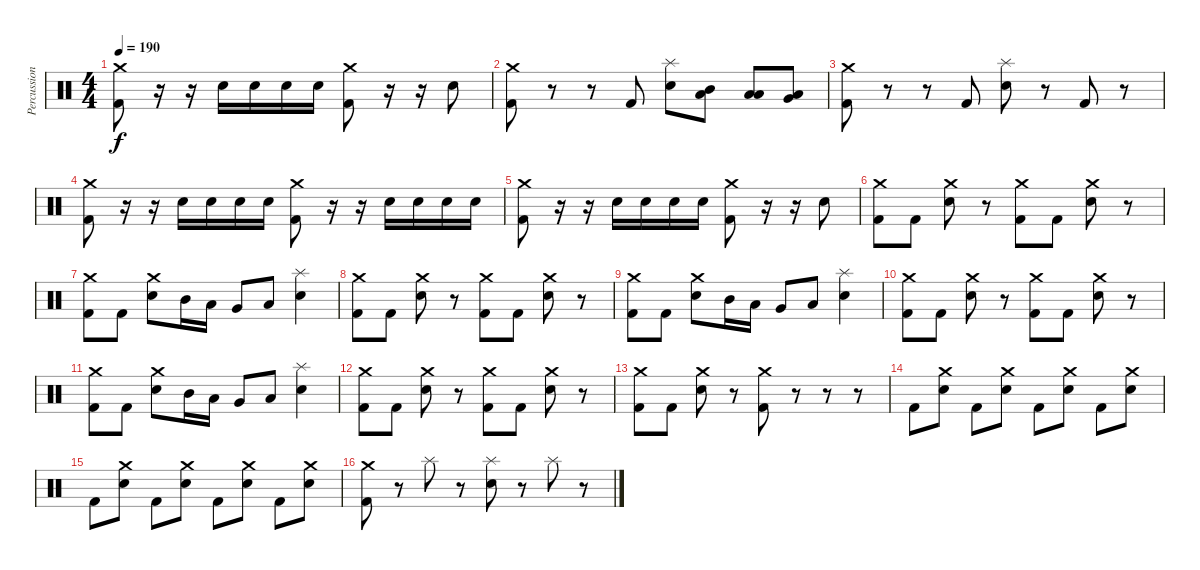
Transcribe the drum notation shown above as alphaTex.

\track ("Percussion" "Percussion") {instrument percussion}
\staff {score}
\articulation defaults
\ts (4 4)
\tempo 190
\clef neutral
\ks c
("Crash medium (hit)" "Kick (hit) 2").8{dy f} r.16 r.16 "Electric Snare (hit)".16 "Electric Snare (hit)".16 "Electric Snare (hit)".16 "Electric Snare (hit)".16 ("Crash medium (hit)" "Kick (hit) 2").8 r.16 r.16 "Electric Snare (hit)".8 |
("Crash medium (hit)" "Kick (hit) 2").8 r.8 r.8 "Kick (hit) 2".8 ("Splash (hit)" "Electric Snare (hit)").8 ("Mid Tom (hit)" "Low Floor Tom (hit)").8 ("Low Tom (hit)" "Low Floor Tom (hit)").8 ("Very Low Tom (hit)" "Low Floor Tom (hit)").8 |
("Crash medium (hit)" "Kick (hit) 2").8 r.8 r.8 "Kick (hit) 2".8 ("Splash (hit)" "Electric Snare (hit)").8 r.8 "Kick (hit) 2".8 r.8 |
("Crash medium (hit)" "Kick (hit) 2").8 r.16 r.16 "Electric Snare (hit)".16 "Electric Snare (hit)".16 "Electric Snare (hit)".16 "Electric Snare (hit)".16 ("Crash medium (hit)" "Kick (hit) 2").8 r.16 r.16 "Electric Snare (hit)".16 "Electric Snare (hit)".16 "Electric Snare (hit)".16 "Electric Snare (hit)".16 |
("Crash medium (hit)" "Kick (hit) 2").8 r.16 r.16 "Electric Snare (hit)".16 "Electric Snare (hit)".16 "Electric Snare (hit)".16 "Electric Snare (hit)".16 ("Crash medium (hit)" "Kick (hit) 2").8 r.16 r.16 "Electric Snare (hit)".8 |
("Crash medium (hit)" "Kick (hit) 2").8 "Kick (hit) 2".8 ("Crash medium (hit)" "Electric Snare (hit)").8 r.8 ("Crash medium (hit)" "Kick (hit) 2").8 "Kick (hit) 2".8 ("Crash medium (hit)" "Electric Snare (hit)").8 r.8 |
("Crash medium (hit)" "Kick (hit) 2").8 "Kick (hit) 2".8 ("Crash medium (hit)" "Electric Snare (hit)").8 "Mid Tom (hit)".16 "Low Tom (hit)".16 "Very Low Tom (hit)".8 "Low Floor Tom (hit)".8 ("Splash (hit)" "Electric Snare (hit)").4 |
("Crash medium (hit)" "Kick (hit) 2").8 "Kick (hit) 2".8 ("Crash medium (hit)" "Electric Snare (hit)").8 r.8 ("Crash medium (hit)" "Kick (hit) 2").8 "Kick (hit) 2".8 ("Crash medium (hit)" "Electric Snare (hit)").8 r.8 |
("Crash medium (hit)" "Kick (hit) 2").8 "Kick (hit) 2".8 ("Crash medium (hit)" "Electric Snare (hit)").8 "Mid Tom (hit)".16 "Low Tom (hit)".16 "Very Low Tom (hit)".8 "Low Floor Tom (hit)".8 ("Splash (hit)" "Electric Snare (hit)").4 |
("Crash medium (hit)" "Kick (hit) 2").8 "Kick (hit) 2".8 ("Crash medium (hit)" "Electric Snare (hit)").8 r.8 ("Crash medium (hit)" "Kick (hit) 2").8 "Kick (hit) 2".8 ("Crash medium (hit)" "Electric Snare (hit)").8 r.8 |
("Crash medium (hit)" "Kick (hit) 2").8 "Kick (hit) 2".8 ("Crash medium (hit)" "Electric Snare (hit)").8 "Mid Tom (hit)".16 "Low Tom (hit)".16 "Very Low Tom (hit)".8 "Low Floor Tom (hit)".8 ("Splash (hit)" "Electric Snare (hit)").4 |
("Crash medium (hit)" "Kick (hit) 2").8 "Kick (hit) 2".8 ("Crash medium (hit)" "Electric Snare (hit)").8 r.8 ("Crash medium (hit)" "Kick (hit) 2").8 "Kick (hit) 2".8 ("Crash medium (hit)" "Electric Snare (hit)").8 r.8 |
("Crash medium (hit)" "Kick (hit) 2").8 "Kick (hit) 2".8 ("Crash medium (hit)" "Electric Snare (hit)").8 r.8 ("Crash medium (hit)" "Kick (hit) 2").8 r.8 r.8 r.8 |
"Kick (hit) 2".8 ("Crash medium (hit)" "Electric Snare (hit)").8 "Kick (hit) 2".8 ("Crash medium (hit)" "Electric Snare (hit)").8 "Kick (hit) 2".8 ("Crash medium (hit)" "Electric Snare (hit)").8 "Kick (hit) 2".8 ("Crash medium (hit)" "Electric Snare (hit)").8 |
"Kick (hit) 2".8 ("Crash medium (hit)" "Electric Snare (hit)").8 "Kick (hit) 2".8 ("Crash medium (hit)" "Electric Snare (hit)").8 "Kick (hit) 2".8 ("Crash medium (hit)" "Electric Snare (hit)").8 "Kick (hit) 2".8 ("Crash medium (hit)" "Electric Snare (hit)").8 |
("Crash medium (hit)" "Kick (hit) 2").8 r.8 "Splash (hit)".8 r.8 ("Splash (hit)" "Electric Snare (hit)").8 r.8 "Splash (hit)".8 r.8
